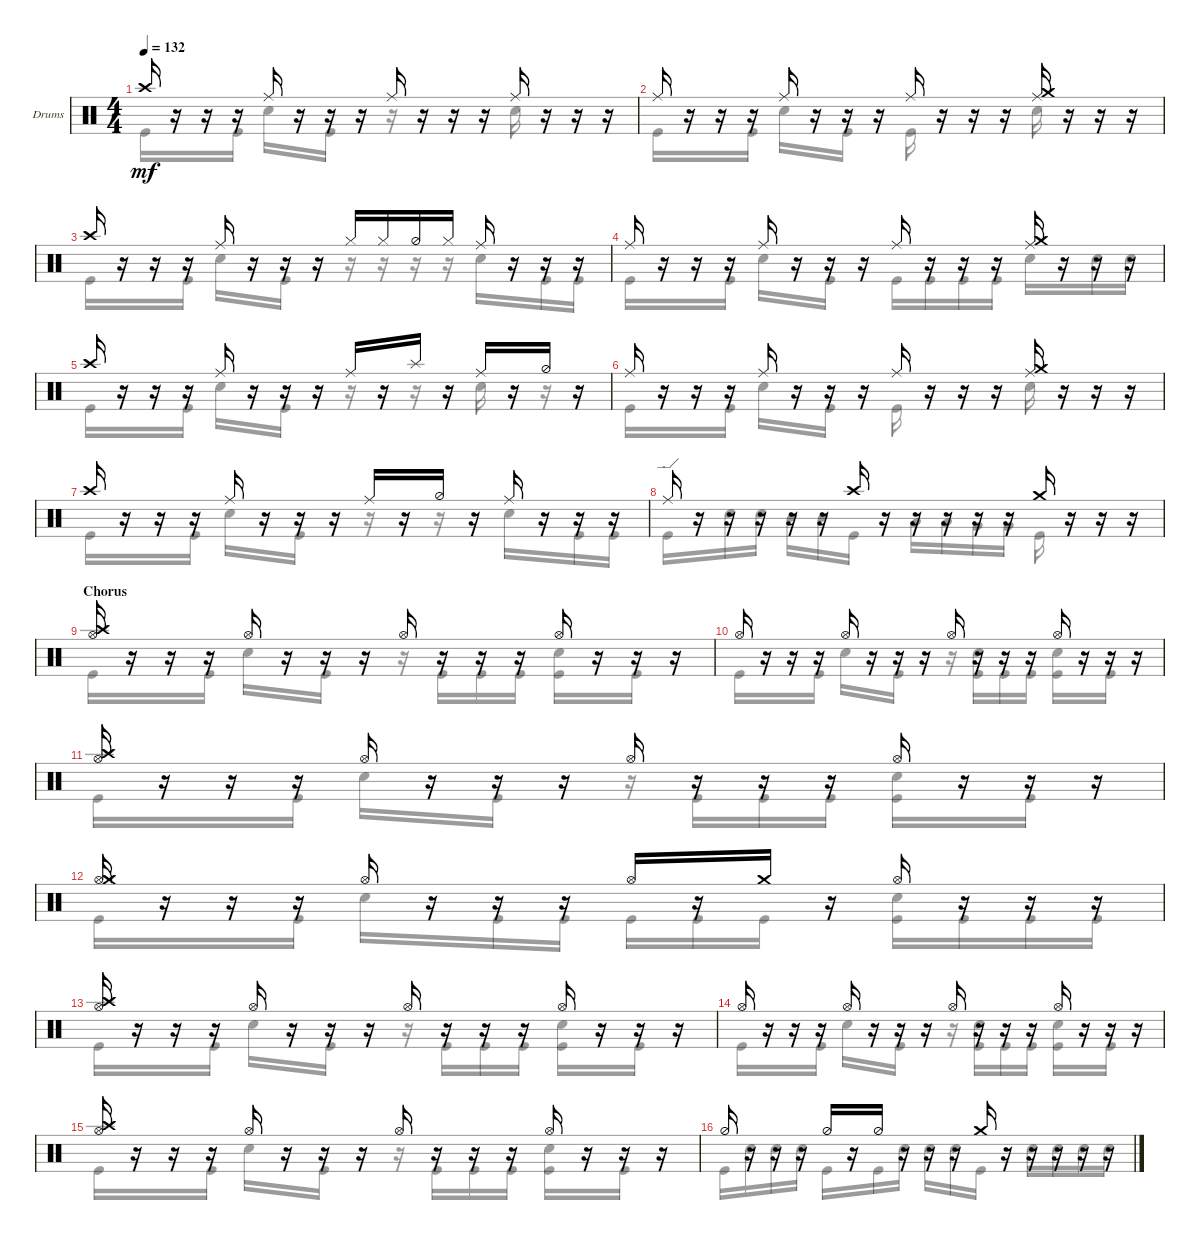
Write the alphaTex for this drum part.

\defaultSystemsLayout 4
\bracketExtendMode groupsimilarinstruments
\firstSystemTrackNameOrientation horizontal
\otherSystemsTrackNameOrientation horizontal
\track ("Drumkit" "Drums") {instrument percussion}
\staff {score}
\articulation defaults
\voice
\ts (4 4)
\tempo 132
\clef neutral
\ks c "Crash high (hit)".16{dy mf}
r.16 r.16 r.16 "Ride (middle)".16 r.16 r.16 r.16 "Ride (middle)".16 r.16 r.16 r.16 "Ride (middle)".16 r.16 r.16 r.16 |
"Ride (middle)".16 r.16 r.16 r.16 "Ride (middle)".16 r.16 r.16 r.16 "Ride (middle)".16 r.16 r.16 r.16 ("Crash medium (hit)" "Ride (middle)").16 r.16 r.16 r.16 |
"Crash high (hit)".16 r.16 r.16 r.16 "Ride (middle)".16 r.16 r.16 r.16 "Hi-Hat (closed)".16 "Hi-Hat (closed)".16 "Hi-Hat (half)".16 "Hi-Hat (closed)".16 "Ride (middle)".16 r.16 r.16 r.16 |
"Ride (middle)".16 r.16 r.16 r.16 "Ride (middle)".16 r.16 r.16 r.16 "Ride (middle)".16 r.16 r.16 r.16 ("Crash medium (hit)" "Ride (middle)").16 r.16 r.16 r.16 |
"Crash high (hit)".16 r.16 r.16 r.16 "Ride (middle)".16 r.16 r.16 r.16 "Ride (middle)".16 r.16 "Splash (hit)".16 r.16 "Ride (middle)".16 r.16 "Hi-Hat (half)".16 r.16 |
"Ride (middle)".16 r.16 r.16 r.16 "Ride (middle)".16 r.16 r.16 r.16 "Ride (middle)".16 r.16 r.16 r.16 ("Crash medium (hit)" "Ride (middle)").16 r.16 r.16 r.16 |
"Crash high (hit)".16 r.16 r.16 r.16 "Ride (middle)".16 r.16 r.16 r.16 "Ride (middle)".16 r.16 "Hi-Hat (half)".16 r.16 "Ride (middle)".16 r.16 r.16 r.16 |
"Ride (edge)".16 r.16 r.16 r.16 r.16 r.16 "Crash high (hit)".16 r.16 r.16 r.16 r.16 r.16 "Crash medium (hit)".16 r.16 r.16 r.16 |
\section ("" "Chorus")
("Crash high (hit)" "Hi-Hat (open)").16 r.16 r.16 r.16 "Hi-Hat (open)".16 r.16 r.16 r.16 "Hi-Hat (open)".16 r.16 r.16 r.16 "Hi-Hat (open)".16 r.16 r.16 r.16 |
"Hi-Hat (open)".16 r.16 r.16 r.16 "Hi-Hat (open)".16 r.16 r.16 r.16 "Hi-Hat (open)".16 r.16 r.16 r.16 "Hi-Hat (open)".16 r.16 r.16 r.16 |
("Crash high (hit)" "Hi-Hat (open)").16 r.16 r.16 r.16 "Hi-Hat (open)".16 r.16 r.16 r.16 "Hi-Hat (open)".16 r.16 r.16 r.16 "Hi-Hat (open)".16 r.16 r.16 r.16 |
("Hi-Hat (open)" "Crash medium (hit)").16 r.16 r.16 r.16 "Hi-Hat (open)".16 r.16 r.16 r.16 "Hi-Hat (open)".16 r.16 "Crash medium (hit)".16 r.16 "Hi-Hat (open)".16 r.16 r.16 r.16 |
("Crash high (hit)" "Hi-Hat (open)").16 r.16 r.16 r.16 "Hi-Hat (open)".16 r.16 r.16 r.16 "Hi-Hat (open)".16 r.16 r.16 r.16 "Hi-Hat (open)".16 r.16 r.16 r.16 |
"Hi-Hat (open)".16 r.16 r.16 r.16 "Hi-Hat (open)".16 r.16 r.16 r.16 "Hi-Hat (open)".16 r.16 r.16 r.16 "Hi-Hat (open)".16 r.16 r.16 r.16 |
("Crash high (hit)" "Hi-Hat (open)").16 r.16 r.16 r.16 "Hi-Hat (open)".16 r.16 r.16 r.16 "Hi-Hat (open)".16 r.16 r.16 r.16 "Hi-Hat (open)".16 r.16 r.16 r.16 |
"Hi-Hat (half)".16 r.16 r.16 r.16 "Hi-Hat (half)".16 r.16 "Hi-Hat (half)".16 r.16 r.16 r.16 "Crash medium (hit)".16 r.16 r.16 r.16 r.16 r.16
\voice
\clef neutral
\ottava regular
\simile none
\ks c "Kick (hit)".16{dy mf}
r.16 r.16 "Kick (hit)".16 "Snare (hit) 2".16 r.16 "Kick (hit)".16 r.16 r.16 r.16 r.16 r.16 "Snare (hit) 2".16 r.16 r.16 r.16 |
"Kick (hit)".16 r.16 r.16 "Kick (hit)".16 "Snare (hit) 2".16 r.16 "Kick (hit)".16 r.16 "Kick (hit)".16 r.16 r.16 r.16 "Snare (hit) 2".16 r.16 r.16 r.16 |
"Kick (hit)".16 r.16 r.16 "Kick (hit)".16 "Snare (hit) 2".16 r.16 "Kick (hit)".16 r.16 r.16 r.16 r.16 r.16 "Snare (hit) 2".16 r.16 "Kick (hit)".16 "Kick (hit)".16 |
"Kick (hit)".16 r.16 r.16 "Kick (hit)".16 "Snare (hit) 2".16 r.16 "Kick (hit)".16 r.16 "Kick (hit)".16 "Kick (hit)".16 "Kick (hit)".16 "Kick (hit)".16 "Snare (hit) 2".16 r.16 "Snare (hit) 2".16 "Snare (hit) 2".16 |
"Kick (hit)".16 r.16 r.16 "Kick (hit)".16 "Snare (hit) 2".16 r.16 "Kick (hit)".16 r.16 r.16 r.16 r.16 r.16 "Snare (hit) 2".16 r.16 r.16 r.16 |
"Kick (hit)".16 r.16 r.16 "Kick (hit)".16 "Snare (hit) 2".16 r.16 "Kick (hit)".16 r.16 "Kick (hit)".16 r.16 r.16 r.16 "Snare (hit) 2".16 r.16 r.16 r.16 |
"Kick (hit)".16 r.16 r.16 "Kick (hit)".16 "Snare (hit) 2".16 r.16 "Kick (hit)".16 r.16 r.16 r.16 r.16 r.16 "Snare (hit) 2".16 r.16 "Kick (hit)".16 "Kick (hit)".16 |
"Kick (hit)".16 r.16 "Snare (hit) 2".16 "Snare (hit) 2".16 "Mid Tom (hit)".16 "Mid Tom (hit)".16 "Kick (hit)".16 r.16 "Low Tom (hit)".16 "Low Tom (hit)".16 "Very Low Tom (hit)".16 "Very Low Tom (hit)".16 "Kick (hit)".16 r.16 r.16 r.16 |
"Kick (hit)".16 r.16 r.16 "Kick (hit)".16 "Snare (hit) 2".16 r.16 "Kick (hit)".16 r.16 r.16 "Kick (hit)".16 "Kick (hit)".16 "Kick (hit)".16 ("Kick (hit)" "Snare (hit) 2").16 r.16 "Kick (hit)".16 r.16 |
"Kick (hit)".16 r.16 r.16 "Kick (hit)".16 "Snare (hit) 2".16 r.16 "Kick (hit)".16 r.16 r.16 ("Kick (hit)" "Snare (hit) 2").16 "Kick (hit)".16 "Kick (hit)".16 ("Kick (hit)" "Snare (hit) 2").16 r.16 "Kick (hit)".16 r.16 |
"Kick (hit)".16 r.16 r.16 "Kick (hit)".16 "Snare (hit) 2".16 r.16 "Kick (hit)".16 r.16 r.16 "Kick (hit)".16 "Kick (hit)".16 "Kick (hit)".16 ("Kick (hit)" "Snare (hit) 2").16 r.16 "Kick (hit)".16 r.16 |
"Kick (hit)".16 r.16 r.16 "Kick (hit)".16 "Snare (hit) 2".16 r.16 "Kick (hit)".16 "Kick (hit)".16 "Kick (hit)".16 "Kick (hit)".16 "Kick (hit)".16 r.16 ("Snare (hit) 2" "Kick (hit)").16 "Kick (hit)".16 "Kick (hit)".16 "Kick (hit)".16 |
"Kick (hit)".16 r.16 r.16 "Kick (hit)".16 "Snare (hit) 2".16 r.16 "Kick (hit)".16 r.16 r.16 "Kick (hit)".16 "Kick (hit)".16 "Kick (hit)".16 ("Kick (hit)" "Snare (hit) 2").16 r.16 "Kick (hit)".16 r.16 |
"Kick (hit)".16 r.16 r.16 "Kick (hit)".16 "Snare (hit) 2".16 r.16 "Kick (hit)".16 r.16 r.16 ("Kick (hit)" "Snare (hit) 2").16 "Kick (hit)".16 "Kick (hit)".16 ("Kick (hit)" "Snare (hit) 2").16 r.16 "Kick (hit)".16 r.16 |
"Kick (hit)".16 r.16 r.16 "Kick (hit)".16 "Snare (hit) 2".16 r.16 "Kick (hit)".16 r.16 r.16 "Kick (hit)".16 "Kick (hit)".16 "Kick (hit)".16 ("Kick (hit)" "Snare (hit) 2").16 r.16 "Kick (hit)".16 r.16 |
"Kick (hit)".16 "Snare (hit) 2".16 "Snare (hit) 2".16 "Snare (hit) 2".16 "Kick (hit)".16 r.16 "Kick (hit)".16 "Snare (hit) 2".16 "Snare (hit) 2".16 "Snare (hit) 2".16 "Kick (hit)".16 r.16 "Snare (hit) 2".16 "Snare (hit) 2".16 "Snare (hit) 2".16 "Snare (hit) 2".16
